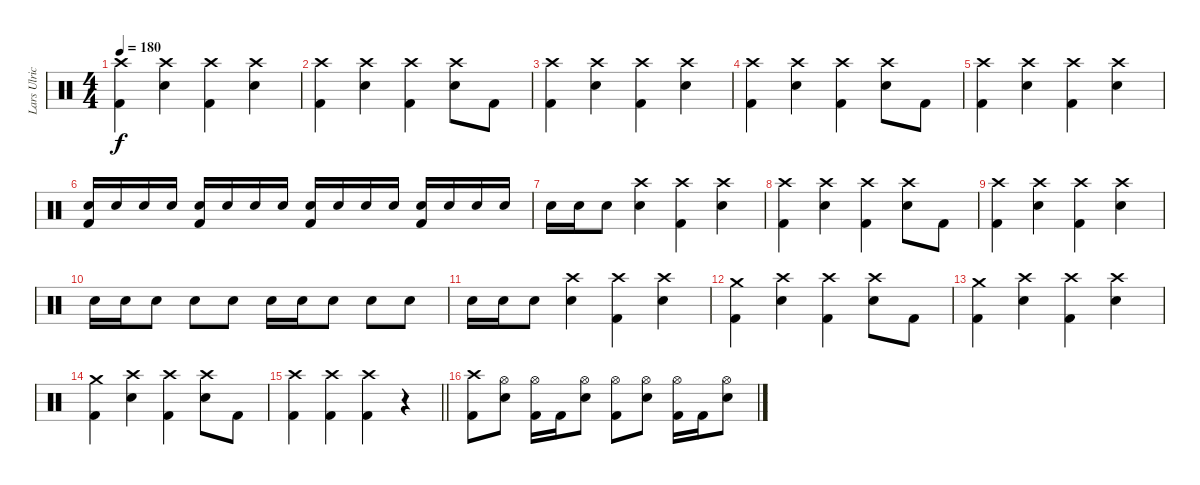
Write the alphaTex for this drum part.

\track ("Lars Ulrich" "Lars Ulric") {instrument percussion}
\staff {score}
\articulation defaults
\ts (4 4)
\tempo 180
\clef neutral
\ks c
("Crash high (hit)" "Kick (hit) 2").4{dy f} ("Crash high (hit)" "Electric Snare (hit)").4 ("Crash high (hit)" "Kick (hit) 2").4 ("Crash high (hit)" "Electric Snare (hit)").4 |
("Crash high (hit)" "Kick (hit) 2").4 ("Crash high (hit)" "Electric Snare (hit)").4 ("Crash high (hit)" "Kick (hit) 2").4 ("Crash high (hit)" "Electric Snare (hit)").8 "Kick (hit) 2".8 |
("Crash high (hit)" "Kick (hit) 2").4 ("Crash high (hit)" "Electric Snare (hit)").4 ("Crash high (hit)" "Kick (hit) 2").4 ("Crash high (hit)" "Electric Snare (hit)").4 |
("Crash high (hit)" "Kick (hit) 2").4 ("Crash high (hit)" "Electric Snare (hit)").4 ("Crash high (hit)" "Kick (hit) 2").4 ("Crash high (hit)" "Electric Snare (hit)").8 "Kick (hit) 2".8 |
("Crash high (hit)" "Kick (hit) 2").4 ("Crash high (hit)" "Electric Snare (hit)").4 ("Crash high (hit)" "Kick (hit) 2").4 ("Crash high (hit)" "Electric Snare (hit)").4 |
("Electric Snare (hit)" "Kick (hit) 2").16 "Electric Snare (hit)".16 "Electric Snare (hit)".16 "Electric Snare (hit)".16 ("Electric Snare (hit)" "Kick (hit) 2").16 "Electric Snare (hit)".16 "Electric Snare (hit)".16 "Electric Snare (hit)".16 ("Electric Snare (hit)" "Kick (hit) 2").16 "Electric Snare (hit)".16 "Electric Snare (hit)".16 "Electric Snare (hit)".16 ("Electric Snare (hit)" "Kick (hit) 2").16 "Electric Snare (hit)".16 "Electric Snare (hit)".16 "Electric Snare (hit)".16 |
"Electric Snare (hit)".16 "Electric Snare (hit)".16 "Electric Snare (hit)".8 ("Crash high (hit)" "Electric Snare (hit)").4 ("Crash high (hit)" "Kick (hit) 2").4 ("Crash high (hit)" "Electric Snare (hit)").4 |
("Crash high (hit)" "Kick (hit) 2").4 ("Crash high (hit)" "Electric Snare (hit)").4 ("Crash high (hit)" "Kick (hit) 2").4 ("Crash high (hit)" "Electric Snare (hit)").8 "Kick (hit) 2".8 |
("Crash high (hit)" "Kick (hit) 2").4 ("Crash high (hit)" "Electric Snare (hit)").4 ("Crash high (hit)" "Kick (hit) 2").4 ("Crash high (hit)" "Electric Snare (hit)").4 |
"Electric Snare (hit)".16 "Electric Snare (hit)".16 "Electric Snare (hit)".8 "Electric Snare (hit)".8 "Electric Snare (hit)".8 "Electric Snare (hit)".16 "Electric Snare (hit)".16 "Electric Snare (hit)".8 "Electric Snare (hit)".8 "Electric Snare (hit)".8 |
"Electric Snare (hit)".16 "Electric Snare (hit)".16 "Electric Snare (hit)".8 ("Crash high (hit)" "Electric Snare (hit)").4 ("Crash high (hit)" "Kick (hit) 2").4 ("Crash high (hit)" "Electric Snare (hit)").4 |
("Crash medium (hit)" "Kick (hit) 2").4 ("Crash high (hit)" "Electric Snare (hit)").4 ("Crash high (hit)" "Kick (hit) 2").4 ("Crash high (hit)" "Electric Snare (hit)").8 "Kick (hit) 2".8 |
("Crash medium (hit)" "Kick (hit) 2").4 ("Crash high (hit)" "Electric Snare (hit)").4 ("Crash high (hit)" "Kick (hit) 2").4 ("Crash high (hit)" "Electric Snare (hit)").4 |
("Crash medium (hit)" "Kick (hit) 2").4 ("Crash high (hit)" "Electric Snare (hit)").4 ("Crash high (hit)" "Kick (hit) 2").4 ("Crash high (hit)" "Electric Snare (hit)").8 "Kick (hit) 2".8 |
\barLineRight lightlight
("Crash high (hit)" "Kick (hit) 2").4 ("Crash high (hit)" "Kick (hit) 2").4 ("Crash high (hit)" "Kick (hit) 2").4 r.4 |
\section ("" "")
("Crash high (hit)" "Kick (hit) 2").8 ("Hi-Hat (open)" "Electric Snare (hit)").8 ("Hi-Hat (open)" "Kick (hit) 2").16 "Kick (hit) 2".16 ("Hi-Hat (open)" "Electric Snare (hit)").8 ("Hi-Hat (open)" "Kick (hit) 2").8 ("Hi-Hat (open)" "Electric Snare (hit)").8 ("Hi-Hat (open)" "Kick (hit) 2").16 "Kick (hit) 2".16 ("Hi-Hat (open)" "Electric Snare (hit)").8
